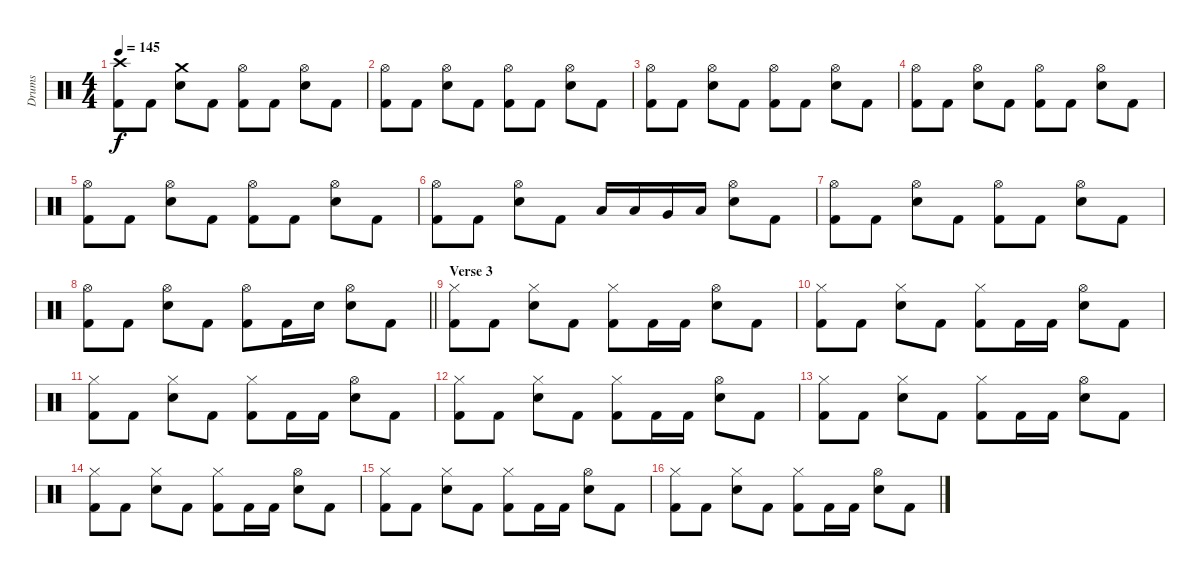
\track ("Drums" "Drums") {instrument percussion}
\staff {score}
\articulation defaults
\ts (4 4)
\tempo 145
\clef neutral
\ks c
("Crash high (hit)" "Kick (hit) 2").8{dy f} "Kick (hit) 2".8 ("Crash medium (hit)" "Snare (hit) 2").8 "Kick (hit) 2".8 ("Hi-Hat (open)" "Kick (hit) 2").8 "Kick (hit) 2".8 ("Hi-Hat (open)" "Snare (hit) 2").8 "Kick (hit) 2".8 |
("Hi-Hat (open)" "Kick (hit) 2").8 "Kick (hit) 2".8 ("Hi-Hat (open)" "Snare (hit) 2").8 "Kick (hit) 2".8 ("Hi-Hat (open)" "Kick (hit) 2").8 "Kick (hit) 2".8 ("Hi-Hat (open)" "Snare (hit) 2").8 "Kick (hit) 2".8 |
("Hi-Hat (open)" "Kick (hit) 2").8 "Kick (hit) 2".8 ("Hi-Hat (open)" "Snare (hit) 2").8 "Kick (hit) 2".8 ("Hi-Hat (open)" "Kick (hit) 2").8 "Kick (hit) 2".8 ("Hi-Hat (open)" "Snare (hit) 2").8 "Kick (hit) 2".8 |
("Hi-Hat (open)" "Kick (hit) 2").8 "Kick (hit) 2".8 ("Hi-Hat (open)" "Snare (hit) 2").8 "Kick (hit) 2".8 ("Hi-Hat (open)" "Kick (hit) 2").8 "Kick (hit) 2".8 ("Hi-Hat (open)" "Snare (hit) 2").8 "Kick (hit) 2".8 |
("Hi-Hat (open)" "Kick (hit) 2").8 "Kick (hit) 2".8 ("Hi-Hat (open)" "Snare (hit) 2").8 "Kick (hit) 2".8 ("Hi-Hat (open)" "Kick (hit) 2").8 "Kick (hit) 2".8 ("Hi-Hat (open)" "Snare (hit) 2").8 "Kick (hit) 2".8 |
("Hi-Hat (open)" "Kick (hit) 2").8 "Kick (hit) 2".8 ("Hi-Hat (open)" "Snare (hit) 2").8 "Kick (hit) 2".8 "Low Tom (hit)".16 "Low Tom (hit)".16 "Very Low Tom (hit)".16 "Low Tom (hit)".16 ("Hi-Hat (open)" "Snare (hit) 2").8 "Kick (hit) 2".8 |
("Hi-Hat (open)" "Kick (hit) 2").8 "Kick (hit) 2".8 ("Hi-Hat (open)" "Snare (hit) 2").8 "Kick (hit) 2".8 ("Hi-Hat (open)" "Kick (hit) 2").8 "Kick (hit) 2".8 ("Hi-Hat (open)" "Snare (hit) 2").8 "Kick (hit) 2".8 |
\barLineRight lightlight
("Hi-Hat (open)" "Kick (hit) 2").8 "Kick (hit) 2".8 ("Hi-Hat (open)" "Snare (hit) 2").8 "Kick (hit) 2".8 ("Hi-Hat (open)" "Kick (hit) 2").8 "Kick (hit) 2".16 "Snare (hit) 2".16 ("Hi-Hat (open)" "Snare (hit) 2").8 "Kick (hit) 2".8 |
\section ("" "Verse 3")
("Hi-Hat (closed)" "Kick (hit) 2").8 "Kick (hit) 2".8 ("Hi-Hat (closed)" "Snare (hit) 2").8 "Kick (hit) 2".8 ("Hi-Hat (closed)" "Kick (hit) 2").8 "Kick (hit) 2".16 "Kick (hit) 2".16 ("Hi-Hat (open)" "Snare (hit) 2").8 "Kick (hit) 2".8 |
("Hi-Hat (closed)" "Kick (hit) 2").8 "Kick (hit) 2".8 ("Hi-Hat (closed)" "Snare (hit) 2").8 "Kick (hit) 2".8 ("Hi-Hat (closed)" "Kick (hit) 2").8 "Kick (hit) 2".16 "Kick (hit) 2".16 ("Hi-Hat (open)" "Snare (hit) 2").8 "Kick (hit) 2".8 |
("Hi-Hat (closed)" "Kick (hit) 2").8 "Kick (hit) 2".8 ("Hi-Hat (closed)" "Snare (hit) 2").8 "Kick (hit) 2".8 ("Hi-Hat (closed)" "Kick (hit) 2").8 "Kick (hit) 2".16 "Kick (hit) 2".16 ("Hi-Hat (open)" "Snare (hit) 2").8 "Kick (hit) 2".8 |
("Hi-Hat (closed)" "Kick (hit) 2").8 "Kick (hit) 2".8 ("Hi-Hat (closed)" "Snare (hit) 2").8 "Kick (hit) 2".8 ("Hi-Hat (closed)" "Kick (hit) 2").8 "Kick (hit) 2".16 "Kick (hit) 2".16 ("Hi-Hat (open)" "Snare (hit) 2").8 "Kick (hit) 2".8 |
("Hi-Hat (closed)" "Kick (hit) 2").8 "Kick (hit) 2".8 ("Hi-Hat (closed)" "Snare (hit) 2").8 "Kick (hit) 2".8 ("Hi-Hat (closed)" "Kick (hit) 2").8 "Kick (hit) 2".16 "Kick (hit) 2".16 ("Hi-Hat (open)" "Snare (hit) 2").8 "Kick (hit) 2".8 |
("Hi-Hat (closed)" "Kick (hit) 2").8 "Kick (hit) 2".8 ("Hi-Hat (closed)" "Snare (hit) 2").8 "Kick (hit) 2".8 ("Hi-Hat (closed)" "Kick (hit) 2").8 "Kick (hit) 2".16 "Kick (hit) 2".16 ("Hi-Hat (open)" "Snare (hit) 2").8 "Kick (hit) 2".8 |
("Hi-Hat (closed)" "Kick (hit) 2").8 "Kick (hit) 2".8 ("Hi-Hat (closed)" "Snare (hit) 2").8 "Kick (hit) 2".8 ("Hi-Hat (closed)" "Kick (hit) 2").8 "Kick (hit) 2".16 "Kick (hit) 2".16 ("Hi-Hat (open)" "Snare (hit) 2").8 "Kick (hit) 2".8 |
("Hi-Hat (closed)" "Kick (hit) 2").8 "Kick (hit) 2".8 ("Hi-Hat (closed)" "Snare (hit) 2").8 "Kick (hit) 2".8 ("Hi-Hat (closed)" "Kick (hit) 2").8 "Kick (hit) 2".16 "Kick (hit) 2".16 ("Hi-Hat (open)" "Snare (hit) 2").8 "Kick (hit) 2".8
